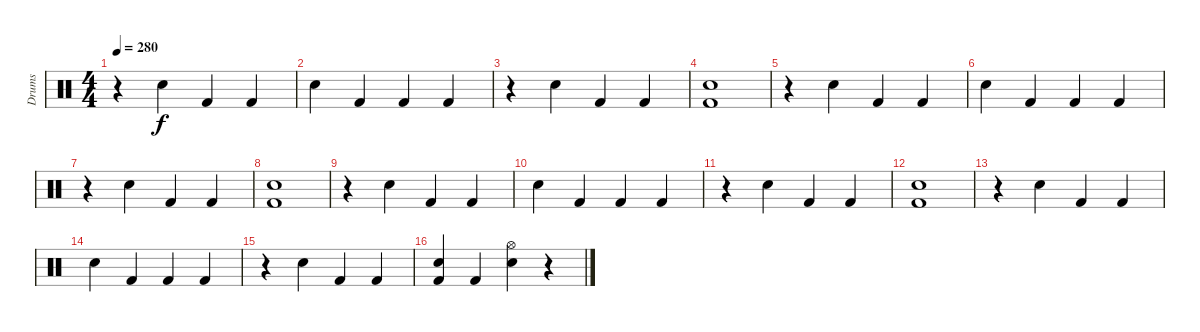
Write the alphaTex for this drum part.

\track ("Drums" "Drums") {instrument percussion}
\staff {score}
\articulation defaults
\ts (4 4)
\tempo 280
\clef neutral
\ks c
r.4{dy f} "Electric Snare (hit)".4 "Kick (hit) 2".4 "Kick (hit) 2".4 |
"Electric Snare (hit)".4 "Kick (hit) 2".4 "Kick (hit) 2".4 "Kick (hit) 2".4 |
r.4 "Electric Snare (hit)".4 "Kick (hit) 2".4 "Kick (hit) 2".4 |
("Electric Snare (hit)" "Kick (hit) 2").1 |
r.4 "Electric Snare (hit)".4 "Kick (hit) 2".4 "Kick (hit) 2".4 |
"Electric Snare (hit)".4 "Kick (hit) 2".4 "Kick (hit) 2".4 "Kick (hit) 2".4 |
r.4 "Electric Snare (hit)".4 "Kick (hit) 2".4 "Kick (hit) 2".4 |
("Electric Snare (hit)" "Kick (hit) 2").1 |
r.4 "Electric Snare (hit)".4 "Kick (hit) 2".4 "Kick (hit) 2".4 |
"Electric Snare (hit)".4 "Kick (hit) 2".4 "Kick (hit) 2".4 "Kick (hit) 2".4 |
r.4 "Electric Snare (hit)".4 "Kick (hit) 2".4 "Kick (hit) 2".4 |
("Electric Snare (hit)" "Kick (hit) 2").1 |
r.4 "Electric Snare (hit)".4 "Kick (hit) 2".4 "Kick (hit) 2".4 |
"Electric Snare (hit)".4 "Kick (hit) 2".4 "Kick (hit) 2".4 "Kick (hit) 2".4 |
r.4 "Electric Snare (hit)".4 "Kick (hit) 2".4 "Kick (hit) 2".4 |
("Electric Snare (hit)" "Kick (hit) 2").4 "Kick (hit) 2".4 ("Hi-Hat (open)" "Electric Snare (hit)").4 r.4
